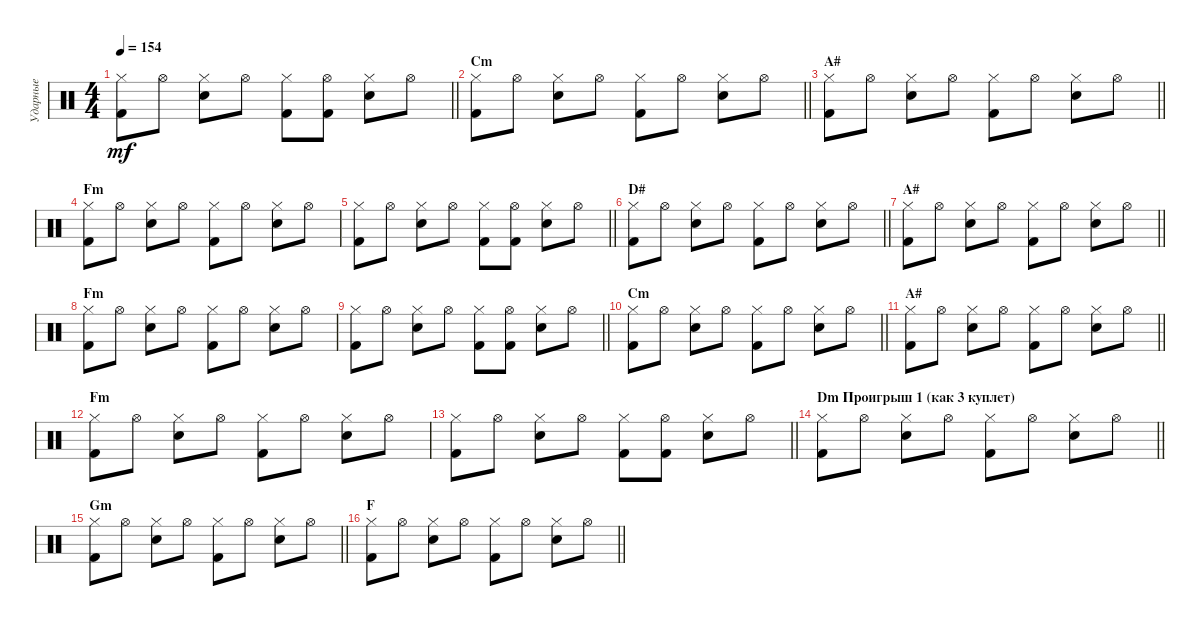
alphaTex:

\track ("Ударные" "Ударные") {instrument percussion}
\staff {score}
\articulation defaults
\ts (4 4)
\tempo 154
\clef neutral
\barLineRight lightlight
\ks c
("Hi-Hat (closed)" "Kick (hit) 2").8{dy mf} "Hi-Hat (open)".8 ("Hi-Hat (closed)" "Electric Snare (hit)").8 "Hi-Hat (open)".8 ("Hi-Hat (closed)" "Kick (hit) 2").8 ("Hi-Hat (open)" "Kick (hit) 2").8 ("Hi-Hat (closed)" "Electric Snare (hit)").8 "Hi-Hat (open)".8 |
\section ("" "Cm")
\barLineRight lightlight
("Hi-Hat (closed)" "Kick (hit) 2").8 "Hi-Hat (open)".8 ("Hi-Hat (closed)" "Electric Snare (hit)").8 "Hi-Hat (open)".8 ("Hi-Hat (closed)" "Kick (hit) 2").8 "Hi-Hat (open)".8 ("Hi-Hat (closed)" "Electric Snare (hit)").8 "Hi-Hat (open)".8 |
\section ("" "A#")
\barLineRight lightlight
("Hi-Hat (closed)" "Kick (hit) 2").8 "Hi-Hat (open)".8 ("Hi-Hat (closed)" "Electric Snare (hit)").8 "Hi-Hat (open)".8 ("Hi-Hat (closed)" "Kick (hit) 2").8 "Hi-Hat (open)".8 ("Hi-Hat (closed)" "Electric Snare (hit)").8 "Hi-Hat (open)".8 |
\section ("" "Fm")
("Hi-Hat (closed)" "Kick (hit) 2").8 "Hi-Hat (open)".8 ("Hi-Hat (closed)" "Electric Snare (hit)").8 "Hi-Hat (open)".8 ("Hi-Hat (closed)" "Kick (hit) 2").8 "Hi-Hat (open)".8 ("Hi-Hat (closed)" "Electric Snare (hit)").8 "Hi-Hat (open)".8 |
\barLineRight lightlight
("Hi-Hat (closed)" "Kick (hit) 2").8 "Hi-Hat (open)".8 ("Hi-Hat (closed)" "Electric Snare (hit)").8 "Hi-Hat (open)".8 ("Hi-Hat (closed)" "Kick (hit) 2").8 ("Hi-Hat (open)" "Kick (hit) 2").8 ("Hi-Hat (closed)" "Electric Snare (hit)").8 "Hi-Hat (open)".8 |
\section ("" "D#")
\barLineRight lightlight
("Hi-Hat (closed)" "Kick (hit) 2").8 "Hi-Hat (open)".8 ("Hi-Hat (closed)" "Electric Snare (hit)").8 "Hi-Hat (open)".8 ("Hi-Hat (closed)" "Kick (hit) 2").8 "Hi-Hat (open)".8 ("Hi-Hat (closed)" "Electric Snare (hit)").8 "Hi-Hat (open)".8 |
\section ("" "A#")
\barLineRight lightlight
("Hi-Hat (closed)" "Kick (hit) 2").8 "Hi-Hat (open)".8 ("Hi-Hat (closed)" "Electric Snare (hit)").8 "Hi-Hat (open)".8 ("Hi-Hat (closed)" "Kick (hit) 2").8 "Hi-Hat (open)".8 ("Hi-Hat (closed)" "Electric Snare (hit)").8 "Hi-Hat (open)".8 |
\section ("" "Fm")
("Hi-Hat (closed)" "Kick (hit) 2").8 "Hi-Hat (open)".8 ("Hi-Hat (closed)" "Electric Snare (hit)").8 "Hi-Hat (open)".8 ("Hi-Hat (closed)" "Kick (hit) 2").8 "Hi-Hat (open)".8 ("Hi-Hat (closed)" "Electric Snare (hit)").8 "Hi-Hat (open)".8 |
\barLineRight lightlight
("Hi-Hat (closed)" "Kick (hit) 2").8 "Hi-Hat (open)".8 ("Hi-Hat (closed)" "Electric Snare (hit)").8 "Hi-Hat (open)".8 ("Hi-Hat (closed)" "Kick (hit) 2").8 ("Hi-Hat (open)" "Kick (hit) 2").8 ("Hi-Hat (closed)" "Electric Snare (hit)").8 "Hi-Hat (open)".8 |
\section ("" "Cm")
\barLineRight lightlight
("Hi-Hat (closed)" "Kick (hit) 2").8 "Hi-Hat (open)".8 ("Hi-Hat (closed)" "Electric Snare (hit)").8 "Hi-Hat (open)".8 ("Hi-Hat (closed)" "Kick (hit) 2").8 "Hi-Hat (open)".8 ("Hi-Hat (closed)" "Electric Snare (hit)").8 "Hi-Hat (open)".8 |
\section ("" "A#")
\barLineRight lightlight
("Hi-Hat (closed)" "Kick (hit) 2").8 "Hi-Hat (open)".8 ("Hi-Hat (closed)" "Electric Snare (hit)").8 "Hi-Hat (open)".8 ("Hi-Hat (closed)" "Kick (hit) 2").8 "Hi-Hat (open)".8 ("Hi-Hat (closed)" "Electric Snare (hit)").8 "Hi-Hat (open)".8 |
\section ("" "Fm")
("Hi-Hat (closed)" "Kick (hit) 2").8 "Hi-Hat (open)".8 ("Hi-Hat (closed)" "Electric Snare (hit)").8 "Hi-Hat (open)".8 ("Hi-Hat (closed)" "Kick (hit) 2").8 "Hi-Hat (open)".8 ("Hi-Hat (closed)" "Electric Snare (hit)").8 "Hi-Hat (open)".8 |
\barLineRight lightlight
("Hi-Hat (closed)" "Kick (hit) 2").8 "Hi-Hat (open)".8 ("Hi-Hat (closed)" "Electric Snare (hit)").8 "Hi-Hat (open)".8 ("Hi-Hat (closed)" "Kick (hit) 2").8 ("Hi-Hat (open)" "Kick (hit) 2").8 ("Hi-Hat (closed)" "Electric Snare (hit)").8 "Hi-Hat (open)".8 |
\section ("" "Dm Проигрыш 1 (как 3 куплет)")
\barLineRight lightlight
("Hi-Hat (closed)" "Kick (hit) 2").8 "Hi-Hat (open)".8 ("Hi-Hat (closed)" "Electric Snare (hit)").8 "Hi-Hat (open)".8 ("Hi-Hat (closed)" "Kick (hit) 2").8 "Hi-Hat (open)".8 ("Hi-Hat (closed)" "Electric Snare (hit)").8 "Hi-Hat (open)".8 |
\section ("" "Gm")
\barLineRight lightlight
("Hi-Hat (closed)" "Kick (hit) 2").8 "Hi-Hat (open)".8 ("Hi-Hat (closed)" "Electric Snare (hit)").8 "Hi-Hat (open)".8 ("Hi-Hat (closed)" "Kick (hit) 2").8 "Hi-Hat (open)".8 ("Hi-Hat (closed)" "Electric Snare (hit)").8 "Hi-Hat (open)".8 |
\section ("" "F")
\barLineRight lightlight
("Hi-Hat (closed)" "Kick (hit) 2").8 "Hi-Hat (open)".8 ("Hi-Hat (closed)" "Electric Snare (hit)").8 "Hi-Hat (open)".8 ("Hi-Hat (closed)" "Kick (hit) 2").8 "Hi-Hat (open)".8 ("Hi-Hat (closed)" "Electric Snare (hit)").8 "Hi-Hat (open)".8
